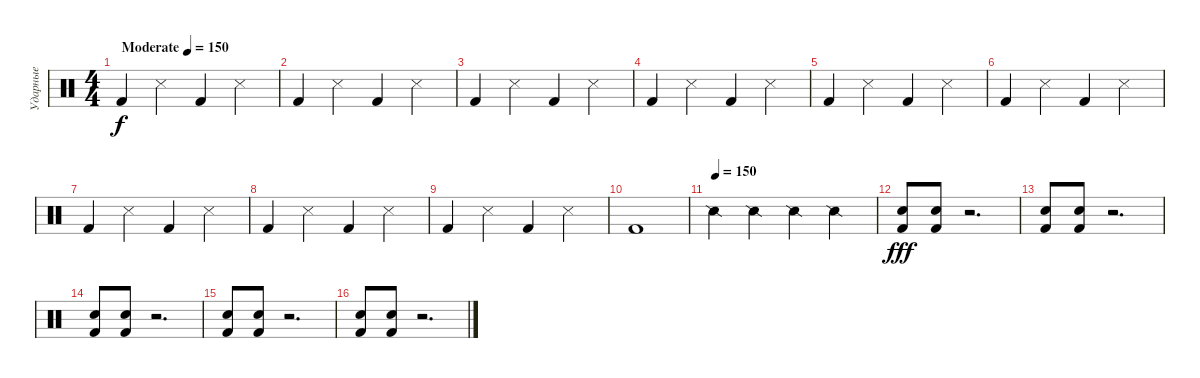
\track ("Ударные" "Ударные") {instrument percussion}
\staff {score}
\articulation defaults
\ts (4 4)
\tempo (150 "Moderate")
\tempo 80
\tempo (150 "Moderate")
\clef neutral
\ks c "Kick (hit) 2".4{dy f} "Snare (side stick) 3".4 "Kick (hit) 2".4 "Snare (side stick) 3".4
|
"Kick (hit) 2".4 "Snare (side stick) 3".4 "Kick (hit) 2".4 "Snare (side stick) 3".4 |
"Kick (hit) 2".4 "Snare (side stick) 3".4 "Kick (hit) 2".4 "Snare (side stick) 3".4 |
"Kick (hit) 2".4 "Snare (side stick) 3".4 "Kick (hit) 2".4 "Snare (side stick) 3".4 |
"Kick (hit) 2".4 "Snare (side stick) 3".4 "Kick (hit) 2".4 "Snare (side stick) 3".4 |
"Kick (hit) 2".4 "Snare (side stick) 3".4 "Kick (hit) 2".4 "Snare (side stick) 3".4 |
"Kick (hit) 2".4 "Snare (side stick) 3".4 "Kick (hit) 2".4 "Snare (side stick) 3".4 |
"Kick (hit) 2".4 "Snare (side stick) 3".4 "Kick (hit) 2".4 "Snare (side stick) 3".4 |
"Kick (hit) 2".4 "Snare (side stick) 3".4 "Kick (hit) 2".4 "Snare (side stick) 3".4 |
"Kick (hit) 2".1 |
\tempo (150)
"Snare (side stick) 2".4 "Snare (side stick) 2".4 "Snare (side stick) 2".4 "Snare (side stick) 2".4 |
("Electric Snare (hit)" "Kick (hit) 2").8{dy fff} ("Electric Snare (hit)" "Kick (hit) 2").8 r.2{d} |
("Electric Snare (hit)" "Kick (hit) 2").8 ("Electric Snare (hit)" "Kick (hit) 2").8 r.2{d} |
("Electric Snare (hit)" "Kick (hit) 2").8 ("Electric Snare (hit)" "Kick (hit) 2").8 r.2{d} |
("Electric Snare (hit)" "Kick (hit) 2").8 ("Electric Snare (hit)" "Kick (hit) 2").8 r.2{d} |
("Electric Snare (hit)" "Kick (hit) 2").8 ("Electric Snare (hit)" "Kick (hit) 2").8 r.2{d}
